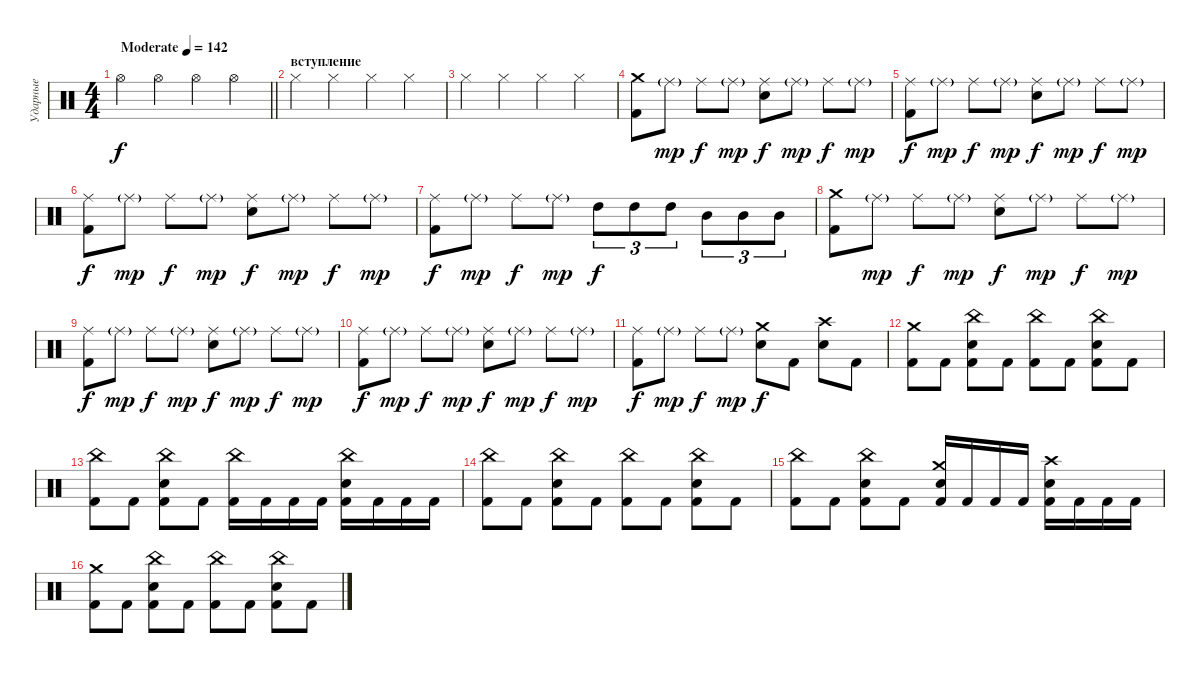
\track ("Ударные" "Ударные") {instrument percussion}
\staff {score}
\articulation defaults
\ts (4 4)
\tempo (142 "Moderate")
\clef neutral
\barLineRight lightlight
\ks c "Hi-Hat (open)".4{dy f} "Hi-Hat (open)".4 "Hi-Hat (open)".4 "Hi-Hat (open)".4
|
\section ("" "вступление")
"Hi-Hat (closed)".4 "Hi-Hat (closed)".4 "Hi-Hat (closed)".4 "Hi-Hat (closed)".4 |
"Hi-Hat (closed)".4 "Hi-Hat (closed)".4 "Hi-Hat (closed)".4 "Hi-Hat (closed)".4 |
("Kick (hit) 2" "Crash medium (hit)").8 "Ride (middle)"{g}.8{dy mp} "Ride (middle)".8{dy f} "Ride (middle)"{g}.8{dy mp} ("Snare (hit) 2" "Ride (middle)").8{dy f} "Ride (middle)"{g}.8{dy mp} "Ride (middle)".8{dy f} "Ride (middle)"{g}.8{dy mp} |
("Kick (hit) 2" "Ride (middle)").8{dy f} "Ride (middle)"{g}.8{dy mp} "Ride (middle)".8{dy f} "Ride (middle)"{g}.8{dy mp} ("Snare (hit) 2" "Ride (middle)").8{dy f} "Ride (middle)"{g}.8{dy mp} "Ride (middle)".8{dy f} "Ride (middle)"{g}.8{dy mp} |
("Kick (hit) 2" "Ride (middle)").8{dy f} "Ride (middle)"{g}.8{dy mp} "Ride (middle)".8{dy f} "Ride (middle)"{g}.8{dy mp} ("Snare (hit) 2" "Ride (middle)").8{dy f} "Ride (middle)"{g}.8{dy mp} "Ride (middle)".8{dy f} "Ride (middle)"{g}.8{dy mp} |
("Kick (hit) 2" "Ride (middle)").8{dy f} "Ride (middle)"{g}.8{dy mp} "Ride (middle)".8{dy f} "Ride (middle)"{g}.8{dy mp} "High Tom (hit)".8{tu (3 2) dy f} "High Tom (hit)".8{tu (3 2)} "High Tom (hit)".8{tu (3 2)} "Mid Tom (hit)".8{tu (3 2)} "Mid Tom (hit)".8{tu (3 2)} "Mid Tom (hit)".8{tu (3 2)} |
("Kick (hit) 2" "Crash medium (hit)").8 "Ride (middle)"{g}.8{dy mp} "Ride (middle)".8{dy f} "Ride (middle)"{g}.8{dy mp} ("Snare (hit) 2" "Ride (middle)").8{dy f} "Ride (middle)"{g}.8{dy mp} "Ride (middle)".8{dy f} "Ride (middle)"{g}.8{dy mp} |
("Kick (hit) 2" "Ride (middle)").8{dy f} "Ride (middle)"{g}.8{dy mp} "Ride (middle)".8{dy f} "Ride (middle)"{g}.8{dy mp} ("Snare (hit) 2" "Ride (middle)").8{dy f} "Ride (middle)"{g}.8{dy mp} "Ride (middle)".8{dy f} "Ride (middle)"{g}.8{dy mp} |
("Kick (hit) 2" "Ride (middle)").8{dy f} "Ride (middle)"{g}.8{dy mp} "Ride (middle)".8{dy f} "Ride (middle)"{g}.8{dy mp} ("Snare (hit) 2" "Ride (middle)").8{dy f} "Ride (middle)"{g}.8{dy mp} "Ride (middle)".8{dy f} "Ride (middle)"{g}.8{dy mp} |
("Kick (hit) 2" "Ride (middle)").8{dy f} "Ride (middle)"{g}.8{dy mp} "Ride (middle)".8{dy f} "Ride (middle)"{g}.8{dy mp} ("Snare (hit) 2" "Crash medium (hit)").8{dy f} "Kick (hit) 2".8 ("Snare (hit) 2" "Crash high (hit)").8 "Kick (hit) 2".8 |
("Kick (hit) 2" "Crash medium (hit)").8 "Kick (hit) 2".8 ("Kick (hit) 2" "Snare (hit) 2" "China (hit)").8 "Kick (hit) 2".8 ("Kick (hit) 2" "China (hit)").8 "Kick (hit) 2".8 ("Kick (hit) 2" "Snare (hit) 2" "China (hit)").8 "Kick (hit) 2".8 |
("Kick (hit) 2" "China (hit)").8 "Kick (hit) 2".8 ("Kick (hit) 2" "Snare (hit) 2" "China (hit)").8 "Kick (hit) 2".8 ("Kick (hit) 2" "China (hit)").16 "Kick (hit) 2".16 "Kick (hit) 2".16 "Kick (hit) 2".16 ("Kick (hit) 2" "Snare (hit) 2" "China (hit)").16 "Kick (hit) 2".16 "Kick (hit) 2".16 "Kick (hit) 2".16 |
("Kick (hit) 2" "China (hit)").8 "Kick (hit) 2".8 ("Kick (hit) 2" "Snare (hit) 2" "China (hit)").8 "Kick (hit) 2".8 ("Kick (hit) 2" "China (hit)").8 "Kick (hit) 2".8 ("Kick (hit) 2" "Snare (hit) 2" "China (hit)").8 "Kick (hit) 2".8 |
("Kick (hit) 2" "China (hit)").8 "Kick (hit) 2".8 ("Kick (hit) 2" "Snare (hit) 2" "China (hit)").8 "Kick (hit) 2".8 ("Kick (hit) 2" "Snare (hit) 2" "Crash medium (hit)").16 "Kick (hit) 2".16 "Kick (hit) 2".16 "Kick (hit) 2".16 ("Kick (hit) 2" "Snare (hit) 2" "Crash high (hit)").16 "Kick (hit) 2".16 "Kick (hit) 2".16 "Kick (hit) 2".16 |
("Kick (hit) 2" "Crash medium (hit)").8 "Kick (hit) 2".8 ("Kick (hit) 2" "Snare (hit) 2" "China (hit)").8 "Kick (hit) 2".8 ("Kick (hit) 2" "China (hit)").8 "Kick (hit) 2".8 ("Kick (hit) 2" "Snare (hit) 2" "China (hit)").8 "Kick (hit) 2".8
